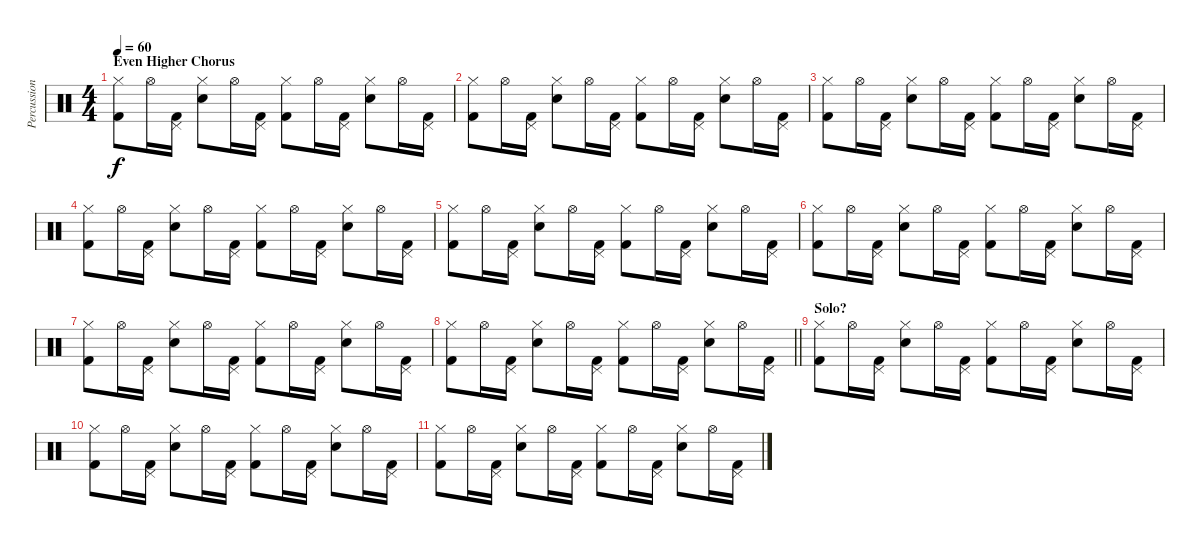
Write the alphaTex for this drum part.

\track ("Percussion" "Percussion") {instrument percussion}
\staff {score}
\articulation defaults
\ts (4 4)
\section ("" "Even Higher Chorus")
\tempo 60
\clef neutral
\ks c
("Hi-Hat (closed)" "Kick (hit) 2").8{dy f} "Hi-Hat (open)".16 ("Pedal Hi-Hat (hit)" "Kick (hit) 2").16 ("Hi-Hat (closed)" "Electric Snare (hit)").8 "Hi-Hat (open)".16 ("Pedal Hi-Hat (hit)" "Kick (hit) 2").16 ("Hi-Hat (closed)" "Kick (hit) 2").8 "Hi-Hat (open)".16 ("Pedal Hi-Hat (hit)" "Kick (hit) 2").16 ("Hi-Hat (closed)" "Electric Snare (hit)").8 "Hi-Hat (open)".16 ("Pedal Hi-Hat (hit)" "Kick (hit) 2").16 |
("Hi-Hat (closed)" "Kick (hit) 2").8 "Hi-Hat (open)".16 ("Pedal Hi-Hat (hit)" "Kick (hit) 2").16 ("Hi-Hat (closed)" "Electric Snare (hit)").8 "Hi-Hat (open)".16 ("Pedal Hi-Hat (hit)" "Kick (hit) 2").16 ("Hi-Hat (closed)" "Kick (hit) 2").8 "Hi-Hat (open)".16 ("Pedal Hi-Hat (hit)" "Kick (hit) 2").16 ("Hi-Hat (closed)" "Electric Snare (hit)").8 "Hi-Hat (open)".16 ("Pedal Hi-Hat (hit)" "Kick (hit) 2").16 |
("Hi-Hat (closed)" "Kick (hit) 2").8 "Hi-Hat (open)".16 ("Pedal Hi-Hat (hit)" "Kick (hit) 2").16 ("Hi-Hat (closed)" "Electric Snare (hit)").8 "Hi-Hat (open)".16 ("Pedal Hi-Hat (hit)" "Kick (hit) 2").16 ("Hi-Hat (closed)" "Kick (hit) 2").8 "Hi-Hat (open)".16 ("Pedal Hi-Hat (hit)" "Kick (hit) 2").16 ("Hi-Hat (closed)" "Electric Snare (hit)").8 "Hi-Hat (open)".16 ("Pedal Hi-Hat (hit)" "Kick (hit) 2").16 |
("Hi-Hat (closed)" "Kick (hit) 2").8 "Hi-Hat (open)".16 ("Pedal Hi-Hat (hit)" "Kick (hit) 2").16 ("Hi-Hat (closed)" "Electric Snare (hit)").8 "Hi-Hat (open)".16 ("Pedal Hi-Hat (hit)" "Kick (hit) 2").16 ("Hi-Hat (closed)" "Kick (hit) 2").8 "Hi-Hat (open)".16 ("Pedal Hi-Hat (hit)" "Kick (hit) 2").16 ("Hi-Hat (closed)" "Electric Snare (hit)").8 "Hi-Hat (open)".16 ("Pedal Hi-Hat (hit)" "Kick (hit) 2").16 |
("Hi-Hat (closed)" "Kick (hit) 2").8 "Hi-Hat (open)".16 ("Pedal Hi-Hat (hit)" "Kick (hit) 2").16 ("Hi-Hat (closed)" "Electric Snare (hit)").8 "Hi-Hat (open)".16 ("Pedal Hi-Hat (hit)" "Kick (hit) 2").16 ("Hi-Hat (closed)" "Kick (hit) 2").8 "Hi-Hat (open)".16 ("Pedal Hi-Hat (hit)" "Kick (hit) 2").16 ("Hi-Hat (closed)" "Electric Snare (hit)").8 "Hi-Hat (open)".16 ("Pedal Hi-Hat (hit)" "Kick (hit) 2").16 |
("Hi-Hat (closed)" "Kick (hit) 2").8 "Hi-Hat (open)".16 ("Pedal Hi-Hat (hit)" "Kick (hit) 2").16 ("Hi-Hat (closed)" "Electric Snare (hit)").8 "Hi-Hat (open)".16 ("Pedal Hi-Hat (hit)" "Kick (hit) 2").16 ("Hi-Hat (closed)" "Kick (hit) 2").8 "Hi-Hat (open)".16 ("Pedal Hi-Hat (hit)" "Kick (hit) 2").16 ("Hi-Hat (closed)" "Electric Snare (hit)").8 "Hi-Hat (open)".16 ("Pedal Hi-Hat (hit)" "Kick (hit) 2").16 |
("Hi-Hat (closed)" "Kick (hit) 2").8 "Hi-Hat (open)".16 ("Pedal Hi-Hat (hit)" "Kick (hit) 2").16 ("Hi-Hat (closed)" "Electric Snare (hit)").8 "Hi-Hat (open)".16 ("Pedal Hi-Hat (hit)" "Kick (hit) 2").16 ("Hi-Hat (closed)" "Kick (hit) 2").8 "Hi-Hat (open)".16 ("Pedal Hi-Hat (hit)" "Kick (hit) 2").16 ("Hi-Hat (closed)" "Electric Snare (hit)").8 "Hi-Hat (open)".16 ("Pedal Hi-Hat (hit)" "Kick (hit) 2").16 |
\barLineRight lightlight
("Hi-Hat (closed)" "Kick (hit) 2").8 "Hi-Hat (open)".16 ("Pedal Hi-Hat (hit)" "Kick (hit) 2").16 ("Hi-Hat (closed)" "Electric Snare (hit)").8 "Hi-Hat (open)".16 ("Pedal Hi-Hat (hit)" "Kick (hit) 2").16 ("Hi-Hat (closed)" "Kick (hit) 2").8 "Hi-Hat (open)".16 ("Pedal Hi-Hat (hit)" "Kick (hit) 2").16 ("Hi-Hat (closed)" "Electric Snare (hit)").8 "Hi-Hat (open)".16 ("Pedal Hi-Hat (hit)" "Kick (hit) 2").16 |
\section ("" "Solo?")
("Hi-Hat (closed)" "Kick (hit) 2").8 "Hi-Hat (open)".16 ("Pedal Hi-Hat (hit)" "Kick (hit) 2").16 ("Hi-Hat (closed)" "Electric Snare (hit)").8 "Hi-Hat (open)".16 ("Pedal Hi-Hat (hit)" "Kick (hit) 2").16 ("Hi-Hat (closed)" "Kick (hit) 2").8 "Hi-Hat (open)".16 ("Pedal Hi-Hat (hit)" "Kick (hit) 2").16 ("Hi-Hat (closed)" "Electric Snare (hit)").8 "Hi-Hat (open)".16 ("Pedal Hi-Hat (hit)" "Kick (hit) 2").16 |
("Hi-Hat (closed)" "Kick (hit) 2").8 "Hi-Hat (open)".16 ("Pedal Hi-Hat (hit)" "Kick (hit) 2").16 ("Hi-Hat (closed)" "Electric Snare (hit)").8 "Hi-Hat (open)".16 ("Pedal Hi-Hat (hit)" "Kick (hit) 2").16 ("Hi-Hat (closed)" "Kick (hit) 2").8 "Hi-Hat (open)".16 ("Pedal Hi-Hat (hit)" "Kick (hit) 2").16 ("Hi-Hat (closed)" "Electric Snare (hit)").8 "Hi-Hat (open)".16 ("Pedal Hi-Hat (hit)" "Kick (hit) 2").16 |
("Hi-Hat (closed)" "Kick (hit) 2").8 "Hi-Hat (open)".16 ("Pedal Hi-Hat (hit)" "Kick (hit) 2").16 ("Hi-Hat (closed)" "Electric Snare (hit)").8 "Hi-Hat (open)".16 ("Pedal Hi-Hat (hit)" "Kick (hit) 2").16 ("Hi-Hat (closed)" "Kick (hit) 2").8 "Hi-Hat (open)".16 ("Pedal Hi-Hat (hit)" "Kick (hit) 2").16 ("Hi-Hat (closed)" "Electric Snare (hit)").8 "Hi-Hat (open)".16 ("Pedal Hi-Hat (hit)" "Kick (hit) 2").16
